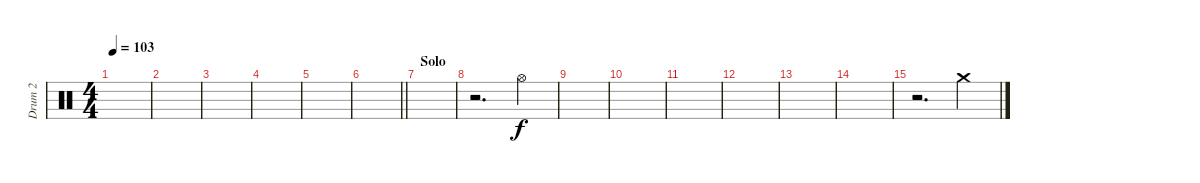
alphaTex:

\track ("Drum 2" "Drum 2") {instrument percussion}
\staff {score}
\articulation defaults
\ts (4 4)
\tempo 103
\clef neutral
\ks c
|
|
|
|
|
\barLineRight lightlight
|
\section ("" "Solo")
|
r.2{d} "Hi-Hat (open)".4 |
|
|
|
|
|
|
r.2{d} "Crash medium (hit)".4
